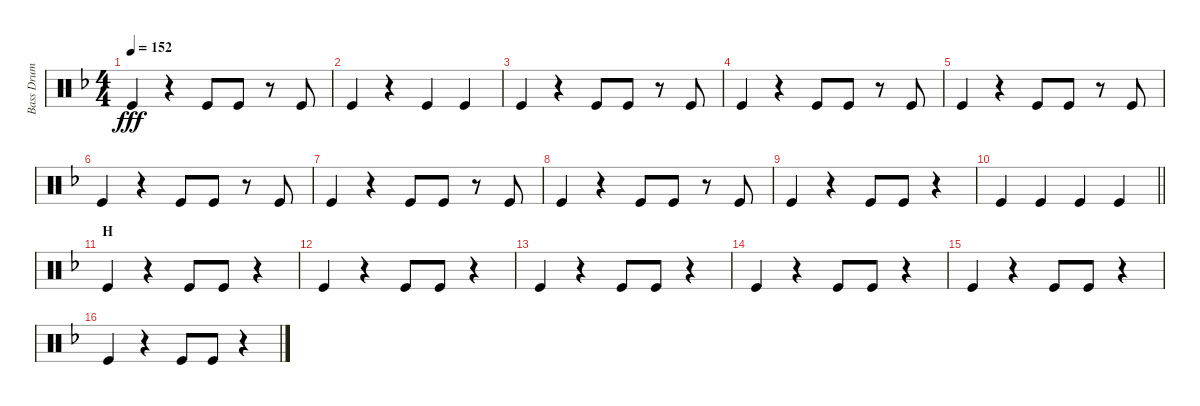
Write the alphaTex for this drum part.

\track ("Bass Drum" "Bass Drum") {instrument percussion}
\staff {score}
\articulation defaults
\ts (4 4)
\tempo 152
\clef neutral
\ks f "Kick (hit)".4{dy fff}
r.4 "Kick (hit)".8 "Kick (hit)".8 r.8 "Kick (hit)".8 |
"Kick (hit)".4 r.4 "Kick (hit)".4 "Kick (hit)".4 |
"Kick (hit)".4 r.4 "Kick (hit)".8 "Kick (hit)".8 r.8 "Kick (hit)".8 |
"Kick (hit)".4 r.4 "Kick (hit)".8 "Kick (hit)".8 r.8 "Kick (hit)".8 |
"Kick (hit)".4 r.4 "Kick (hit)".8 "Kick (hit)".8 r.8 "Kick (hit)".8 |
"Kick (hit)".4 r.4 "Kick (hit)".8 "Kick (hit)".8 r.8 "Kick (hit)".8 |
"Kick (hit)".4 r.4 "Kick (hit)".8 "Kick (hit)".8 r.8 "Kick (hit)".8 |
"Kick (hit)".4 r.4 "Kick (hit)".8 "Kick (hit)".8 r.8 "Kick (hit)".8 |
"Kick (hit)".4 r.4 "Kick (hit)".8 "Kick (hit)".8 r.4 |
\barLineRight lightlight "Kick (hit)".4 "Kick (hit)".4 "Kick (hit)".4 "Kick (hit)".4
|
\section ("" "H")
"Kick (hit)".4 r.4 "Kick (hit)".8 "Kick (hit)".8 r.4 |
"Kick (hit)".4 r.4 "Kick (hit)".8 "Kick (hit)".8 r.4 |
"Kick (hit)".4 r.4 "Kick (hit)".8 "Kick (hit)".8 r.4 |
"Kick (hit)".4 r.4 "Kick (hit)".8 "Kick (hit)".8 r.4 |
"Kick (hit)".4 r.4 "Kick (hit)".8 "Kick (hit)".8 r.4 |
"Kick (hit)".4 r.4 "Kick (hit)".8 "Kick (hit)".8 r.4
